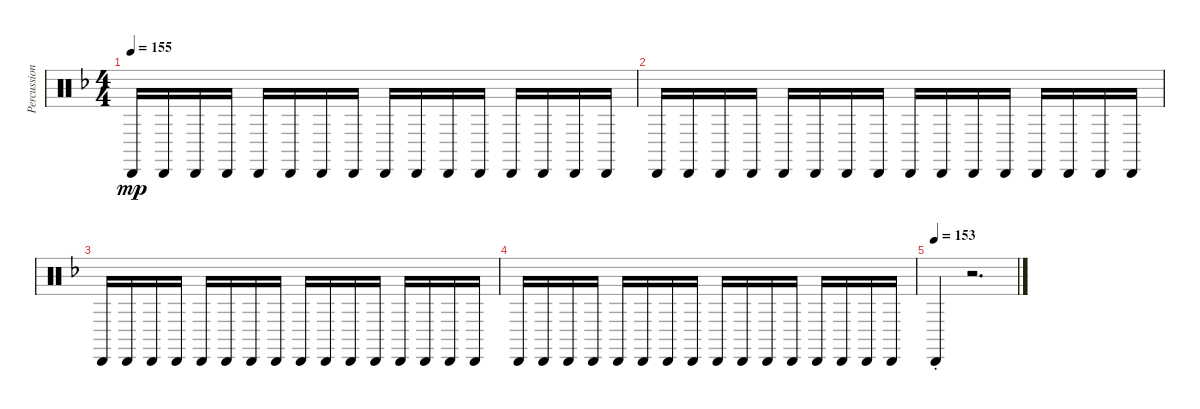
\track ("Percussion" "Percussion") {instrument percussion}
\staff {score}
\articulation defaults
\ts (4 4)
\tempo 155
\clef neutral
\ks dminor "Cabasa (hit)".16{dy mp} "Cabasa (hit)".16 "Cabasa (hit)".16 "Cabasa (hit)".16 "Cabasa (hit)".16 "Cabasa (hit)".16 "Cabasa (hit)".16 "Cabasa (hit)".16 "Cabasa (hit)".16 "Cabasa (hit)".16 "Cabasa (hit)".16 "Cabasa (hit)".16 "Cabasa (hit)".16 "Cabasa (hit)".16 "Cabasa (hit)".16 "Cabasa (hit)".16
|
"Cabasa (hit)".16 "Cabasa (hit)".16 "Cabasa (hit)".16 "Cabasa (hit)".16 "Cabasa (hit)".16 "Cabasa (hit)".16 "Cabasa (hit)".16 "Cabasa (hit)".16 "Cabasa (hit)".16 "Cabasa (hit)".16 "Cabasa (hit)".16 "Cabasa (hit)".16 "Cabasa (hit)".16 "Cabasa (hit)".16 "Cabasa (hit)".16 "Cabasa (hit)".16 |
"Cabasa (hit)".16 "Cabasa (hit)".16 "Cabasa (hit)".16 "Cabasa (hit)".16 "Cabasa (hit)".16 "Cabasa (hit)".16 "Cabasa (hit)".16 "Cabasa (hit)".16 "Cabasa (hit)".16 "Cabasa (hit)".16 "Cabasa (hit)".16 "Cabasa (hit)".16 "Cabasa (hit)".16 "Cabasa (hit)".16 "Cabasa (hit)".16 "Cabasa (hit)".16 |
"Cabasa (hit)".16 "Cabasa (hit)".16 "Cabasa (hit)".16 "Cabasa (hit)".16 "Cabasa (hit)".16 "Cabasa (hit)".16 "Cabasa (hit)".16 "Cabasa (hit)".16 "Cabasa (hit)".16 "Cabasa (hit)".16 "Cabasa (hit)".16 "Cabasa (hit)".16 "Cabasa (hit)".16 "Cabasa (hit)".16 "Cabasa (hit)".16 "Cabasa (hit)".16 |
\tempo (153)
"Cabasa (hit)"{st}.4 r.2{d}
